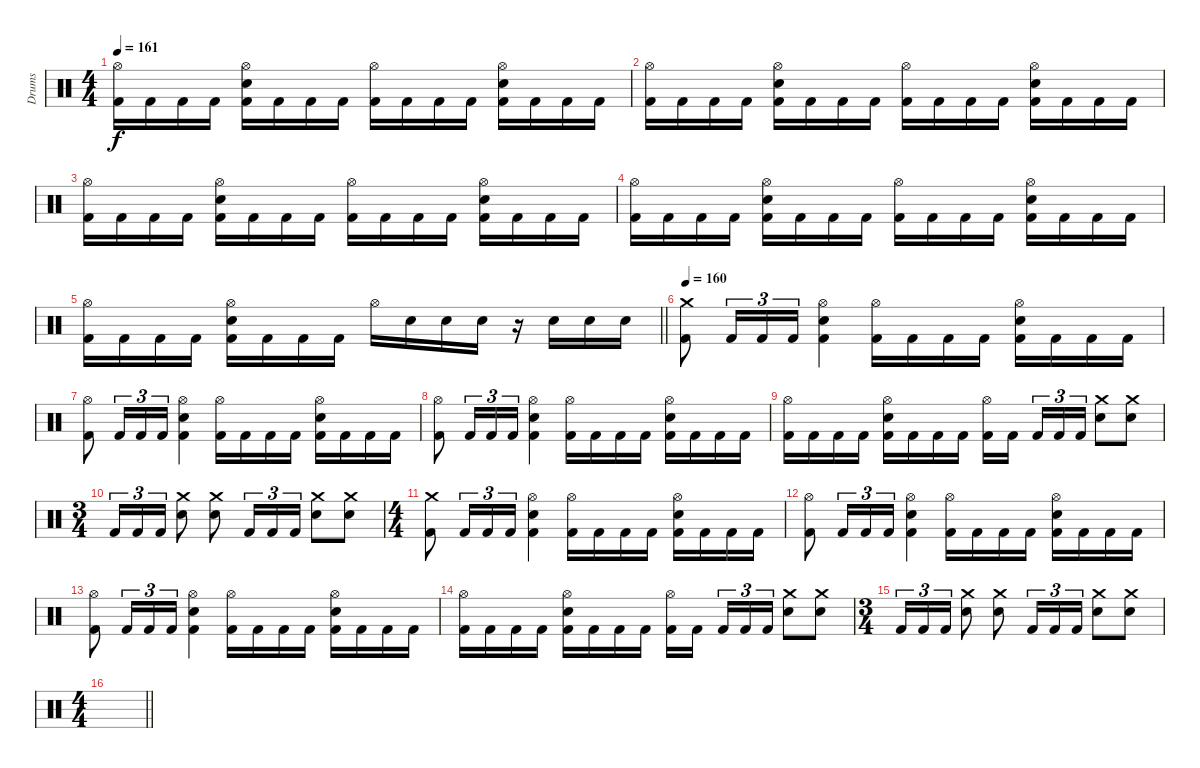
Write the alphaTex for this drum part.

\track ("Drums" "Drums") {instrument percussion}
\staff {score}
\articulation defaults
\ts (4 4)
\tempo 161
\clef neutral
\ks c
("Hi-Hat (open)" "Kick (hit) 2").16{dy f} "Kick (hit) 2".16 "Kick (hit) 2".16 "Kick (hit) 2".16 ("Hi-Hat (open)" "Electric Snare (hit)" "Kick (hit) 2").16 "Kick (hit) 2".16 "Kick (hit) 2".16 "Kick (hit) 2".16 ("Hi-Hat (open)" "Kick (hit) 2").16 "Kick (hit) 2".16 "Kick (hit) 2".16 "Kick (hit) 2".16 ("Hi-Hat (open)" "Electric Snare (hit)" "Kick (hit) 2").16 "Kick (hit) 2".16 "Kick (hit) 2".16 "Kick (hit) 2".16 |
("Hi-Hat (open)" "Kick (hit) 2").16 "Kick (hit) 2".16 "Kick (hit) 2".16 "Kick (hit) 2".16 ("Hi-Hat (open)" "Electric Snare (hit)" "Kick (hit) 2").16 "Kick (hit) 2".16 "Kick (hit) 2".16 "Kick (hit) 2".16 ("Hi-Hat (open)" "Kick (hit) 2").16 "Kick (hit) 2".16 "Kick (hit) 2".16 "Kick (hit) 2".16 ("Hi-Hat (open)" "Electric Snare (hit)" "Kick (hit) 2").16 "Kick (hit) 2".16 "Kick (hit) 2".16 "Kick (hit) 2".16 |
("Hi-Hat (open)" "Kick (hit) 2").16 "Kick (hit) 2".16 "Kick (hit) 2".16 "Kick (hit) 2".16 ("Hi-Hat (open)" "Electric Snare (hit)" "Kick (hit) 2").16 "Kick (hit) 2".16 "Kick (hit) 2".16 "Kick (hit) 2".16 ("Hi-Hat (open)" "Kick (hit) 2").16 "Kick (hit) 2".16 "Kick (hit) 2".16 "Kick (hit) 2".16 ("Hi-Hat (open)" "Electric Snare (hit)" "Kick (hit) 2").16 "Kick (hit) 2".16 "Kick (hit) 2".16 "Kick (hit) 2".16 |
("Hi-Hat (open)" "Kick (hit) 2").16 "Kick (hit) 2".16 "Kick (hit) 2".16 "Kick (hit) 2".16 ("Hi-Hat (open)" "Electric Snare (hit)" "Kick (hit) 2").16 "Kick (hit) 2".16 "Kick (hit) 2".16 "Kick (hit) 2".16 ("Hi-Hat (open)" "Kick (hit) 2").16 "Kick (hit) 2".16 "Kick (hit) 2".16 "Kick (hit) 2".16 ("Hi-Hat (open)" "Electric Snare (hit)" "Kick (hit) 2").16 "Kick (hit) 2".16 "Kick (hit) 2".16 "Kick (hit) 2".16 |
\barLineRight lightlight
("Hi-Hat (open)" "Kick (hit) 2").16 "Kick (hit) 2".16 "Kick (hit) 2".16 "Kick (hit) 2".16 ("Hi-Hat (open)" "Electric Snare (hit)" "Kick (hit) 2").16 "Kick (hit) 2".16 "Kick (hit) 2".16 "Kick (hit) 2".16 "Hi-Hat (open)".16 "Electric Snare (hit)".16 "Electric Snare (hit)".16 "Electric Snare (hit)".16 r.16 "Electric Snare (hit)".16 "Electric Snare (hit)".16 "Electric Snare (hit)".16 |
\section ("" "")
\tempo 160
("Crash medium (hit)" "Kick (hit) 2").8 "Kick (hit) 2".16{tu (3 2)} "Kick (hit) 2".16{tu (3 2)} "Kick (hit) 2".16{tu (3 2)} ("Hi-Hat (open)" "Electric Snare (hit)" "Kick (hit) 2").4 ("Hi-Hat (open)" "Kick (hit) 2").16 "Kick (hit) 2".16 "Kick (hit) 2".16 "Kick (hit) 2".16 ("Hi-Hat (open)" "Electric Snare (hit)" "Kick (hit) 2").16 "Kick (hit) 2".16 "Kick (hit) 2".16 "Kick (hit) 2".16 |
("Hi-Hat (open)" "Kick (hit) 2").8 "Kick (hit) 2".16{tu (3 2)} "Kick (hit) 2".16{tu (3 2)} "Kick (hit) 2".16{tu (3 2)} ("Hi-Hat (open)" "Electric Snare (hit)" "Kick (hit) 2").4 ("Hi-Hat (open)" "Kick (hit) 2").16 "Kick (hit) 2".16 "Kick (hit) 2".16 "Kick (hit) 2".16 ("Hi-Hat (open)" "Electric Snare (hit)" "Kick (hit) 2").16 "Kick (hit) 2".16 "Kick (hit) 2".16 "Kick (hit) 2".16 |
("Hi-Hat (open)" "Kick (hit) 2").8 "Kick (hit) 2".16{tu (3 2)} "Kick (hit) 2".16{tu (3 2)} "Kick (hit) 2".16{tu (3 2)} ("Hi-Hat (open)" "Electric Snare (hit)" "Kick (hit) 2").4 ("Hi-Hat (open)" "Kick (hit) 2").16 "Kick (hit) 2".16 "Kick (hit) 2".16 "Kick (hit) 2".16 ("Hi-Hat (open)" "Electric Snare (hit)" "Kick (hit) 2").16 "Kick (hit) 2".16 "Kick (hit) 2".16 "Kick (hit) 2".16 |
("Hi-Hat (open)" "Kick (hit) 2").16 "Kick (hit) 2".16 "Kick (hit) 2".16 "Kick (hit) 2".16 ("Hi-Hat (open)" "Electric Snare (hit)" "Kick (hit) 2").16 "Kick (hit) 2".16 "Kick (hit) 2".16 "Kick (hit) 2".16 ("Hi-Hat (open)" "Kick (hit) 2").16 "Kick (hit) 2".16{beam splitsecondary} "Kick (hit) 2".16{tu (3 2)} "Kick (hit) 2".16{tu (3 2)} "Kick (hit) 2".16{tu (3 2)} ("Crash medium (hit)" "Electric Snare (hit)").8 ("Crash medium (hit)" "Electric Snare (hit)").8 |
\ts (3 4)
"Kick (hit) 2".16{tu (3 2)} "Kick (hit) 2".16{tu (3 2)} "Kick (hit) 2".16{tu (3 2)} ("Crash medium (hit)" "Electric Snare (hit)").8 ("Crash medium (hit)" "Electric Snare (hit)").8 "Kick (hit) 2".16{tu (3 2)} "Kick (hit) 2".16{tu (3 2)} "Kick (hit) 2".16{tu (3 2)} ("Crash medium (hit)" "Electric Snare (hit)").8 ("Crash medium (hit)" "Electric Snare (hit)").8 |
\ts (4 4)
("Crash medium (hit)" "Kick (hit) 2").8 "Kick (hit) 2".16{tu (3 2)} "Kick (hit) 2".16{tu (3 2)} "Kick (hit) 2".16{tu (3 2)} ("Hi-Hat (open)" "Electric Snare (hit)" "Kick (hit) 2").4 ("Hi-Hat (open)" "Kick (hit) 2").16 "Kick (hit) 2".16 "Kick (hit) 2".16 "Kick (hit) 2".16 ("Hi-Hat (open)" "Electric Snare (hit)" "Kick (hit) 2").16 "Kick (hit) 2".16 "Kick (hit) 2".16 "Kick (hit) 2".16 |
("Hi-Hat (open)" "Kick (hit) 2").8 "Kick (hit) 2".16{tu (3 2)} "Kick (hit) 2".16{tu (3 2)} "Kick (hit) 2".16{tu (3 2)} ("Hi-Hat (open)" "Electric Snare (hit)" "Kick (hit) 2").4 ("Hi-Hat (open)" "Kick (hit) 2").16 "Kick (hit) 2".16 "Kick (hit) 2".16 "Kick (hit) 2".16 ("Hi-Hat (open)" "Electric Snare (hit)" "Kick (hit) 2").16 "Kick (hit) 2".16 "Kick (hit) 2".16 "Kick (hit) 2".16 |
("Hi-Hat (open)" "Kick (hit) 2").8 "Kick (hit) 2".16{tu (3 2)} "Kick (hit) 2".16{tu (3 2)} "Kick (hit) 2".16{tu (3 2)} ("Hi-Hat (open)" "Electric Snare (hit)" "Kick (hit) 2").4 ("Hi-Hat (open)" "Kick (hit) 2").16 "Kick (hit) 2".16 "Kick (hit) 2".16 "Kick (hit) 2".16 ("Hi-Hat (open)" "Electric Snare (hit)" "Kick (hit) 2").16 "Kick (hit) 2".16 "Kick (hit) 2".16 "Kick (hit) 2".16 |
("Hi-Hat (open)" "Kick (hit) 2").16 "Kick (hit) 2".16 "Kick (hit) 2".16 "Kick (hit) 2".16 ("Hi-Hat (open)" "Electric Snare (hit)" "Kick (hit) 2").16 "Kick (hit) 2".16 "Kick (hit) 2".16 "Kick (hit) 2".16 ("Hi-Hat (open)" "Kick (hit) 2").16 "Kick (hit) 2".16{beam splitsecondary} "Kick (hit) 2".16{tu (3 2)} "Kick (hit) 2".16{tu (3 2)} "Kick (hit) 2".16{tu (3 2)} ("Crash medium (hit)" "Electric Snare (hit)").8 ("Crash medium (hit)" "Electric Snare (hit)").8 |
\ts (3 4)
"Kick (hit) 2".16{tu (3 2)} "Kick (hit) 2".16{tu (3 2)} "Kick (hit) 2".16{tu (3 2)} ("Crash medium (hit)" "Electric Snare (hit)").8 ("Crash medium (hit)" "Electric Snare (hit)").8 "Kick (hit) 2".16{tu (3 2)} "Kick (hit) 2".16{tu (3 2)} "Kick (hit) 2".16{tu (3 2)} ("Crash medium (hit)" "Electric Snare (hit)").8 ("Crash medium (hit)" "Electric Snare (hit)").8 |
\ts (4 4)
\barLineRight lightlight
